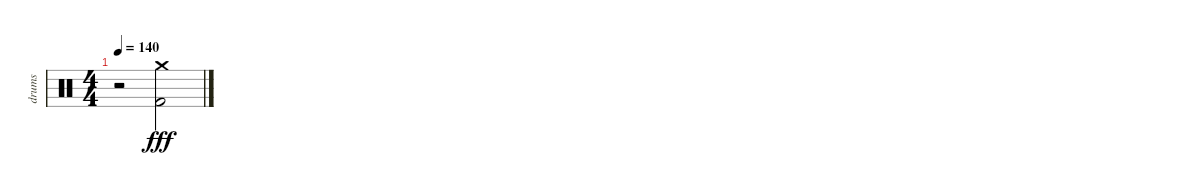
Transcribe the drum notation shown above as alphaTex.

\track ("drums" "drums") {instrument percussion}
\staff {score}
\articulation defaults
\ts (4 4)
\tempo 140
\clef neutral
\ks c
r.2{dy fff} ("Crash medium (hit)" "Kick (hit) 2").2
